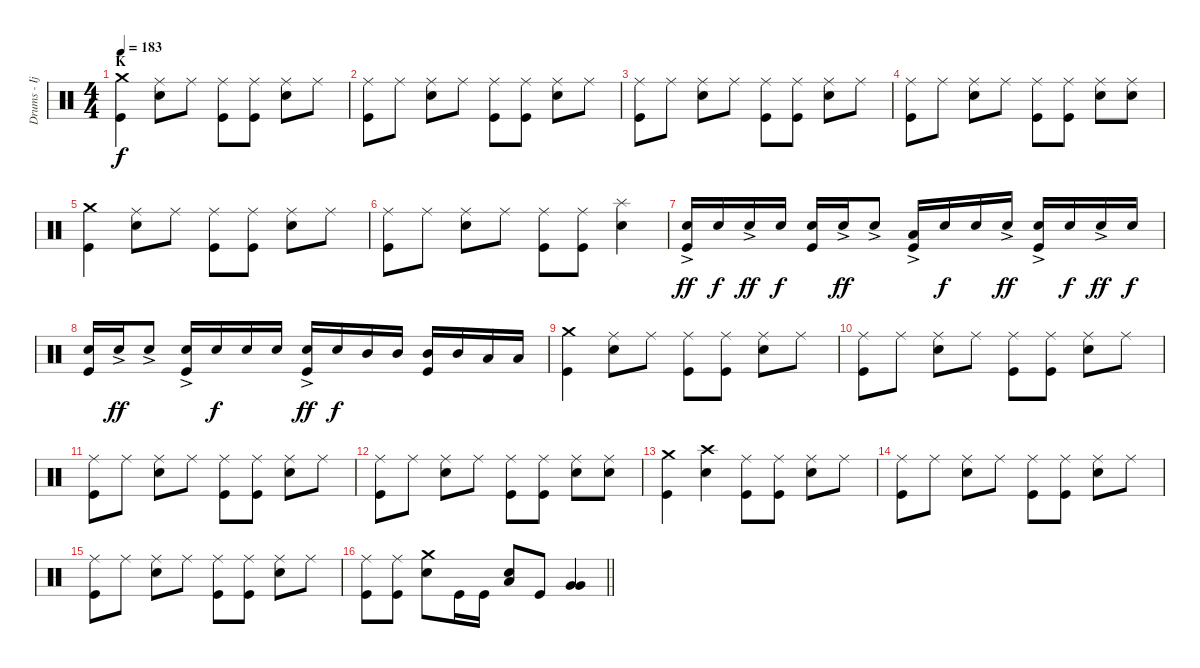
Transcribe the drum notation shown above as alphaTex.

\track ("Drums - Ijichi" "Drums - Ij") {instrument percussion}
\staff {score}
\articulation defaults
\ts (4 4)
\section ("" "K")
\tempo 183
\clef neutral
\ks c
("Crash medium (hit)" "Kick (hit)").4{dy f} ("Ride (middle)" "Electric Snare (hit)").8 "Ride (middle)".8 ("Ride (middle)" "Kick (hit)").8 ("Ride (middle)" "Kick (hit)").8 ("Ride (middle)" "Electric Snare (hit)").8 "Ride (middle)".8 |
("Ride (middle)" "Kick (hit)").8 "Ride (middle)".8 ("Ride (middle)" "Electric Snare (hit)").8 "Ride (middle)".8 ("Ride (middle)" "Kick (hit)").8 ("Ride (middle)" "Kick (hit)").8 ("Ride (middle)" "Electric Snare (hit)").8 "Ride (middle)".8 |
("Ride (middle)" "Kick (hit)").8 "Ride (middle)".8 ("Ride (middle)" "Electric Snare (hit)").8 "Ride (middle)".8 ("Ride (middle)" "Kick (hit)").8 ("Ride (middle)" "Kick (hit)").8 ("Ride (middle)" "Electric Snare (hit)").8 "Ride (middle)".8 |
("Ride (middle)" "Kick (hit)").8 "Ride (middle)".8 ("Ride (middle)" "Electric Snare (hit)").8 "Ride (middle)".8 ("Ride (middle)" "Kick (hit)").8 ("Ride (middle)" "Kick (hit)").8 ("Ride (middle)" "Electric Snare (hit)").8 ("Ride (middle)" "Electric Snare (hit)").8 |
("Crash medium (hit)" "Kick (hit)").4 ("Ride (middle)" "Electric Snare (hit)").8 "Ride (middle)".8 ("Ride (middle)" "Kick (hit)").8 ("Ride (middle)" "Kick (hit)").8 ("Ride (middle)" "Electric Snare (hit)").8 "Ride (middle)".8 |
("Ride (middle)" "Kick (hit)").8 "Ride (middle)".8 ("Ride (middle)" "Electric Snare (hit)").8 "Ride (middle)".8 ("Ride (middle)" "Kick (hit)").8 ("Ride (middle)" "Kick (hit)").8 ("Splash (hit)" "Electric Snare (hit)").4 |
("Electric Snare (hit)"{ac} "Kick (hit)").16{dy ff} "Electric Snare (hit)".16{dy f} "Electric Snare (hit)"{ac}.16{dy ff} "Electric Snare (hit)".16{dy f} ("Electric Snare (hit)" "Kick (hit)").16 "Electric Snare (hit)"{ac}.16{dy ff} "Electric Snare (hit)"{ac}.8 ("Low Tom (hit)"{ac} "Kick (hit)").16 "Electric Snare (hit)".16{dy f} "Electric Snare (hit)".16 "Electric Snare (hit)"{ac}.16{dy ff} ("Electric Snare (hit)"{ac} "Kick (hit)").16 "Electric Snare (hit)".16{dy f} "Electric Snare (hit)"{ac}.16{dy ff} "Electric Snare (hit)".16{dy f} |
("Electric Snare (hit)" "Kick (hit)").16 "Electric Snare (hit)"{ac}.16{dy ff} "Electric Snare (hit)"{ac}.8 ("Electric Snare (hit)"{ac} "Kick (hit)").16 "Electric Snare (hit)".16{dy f} "Electric Snare (hit)".16 "Electric Snare (hit)".16 ("Electric Snare (hit)"{ac} "Kick (hit)").16{dy ff} "Electric Snare (hit)".16{dy f} "Mid Tom (hit)".16 "Mid Tom (hit)".16 ("Mid Tom (hit)" "Kick (hit)").16 "Mid Tom (hit)".16 "Low Tom (hit)".16 "Low Tom (hit)".16 |
("Crash medium (hit)" "Kick (hit)").4 ("Ride (middle)" "Electric Snare (hit)").8 "Ride (middle)".8 ("Ride (middle)" "Kick (hit)").8 ("Ride (middle)" "Kick (hit)").8 ("Ride (middle)" "Electric Snare (hit)").8 "Ride (middle)".8 |
("Ride (middle)" "Kick (hit)").8 "Ride (middle)".8 ("Ride (middle)" "Electric Snare (hit)").8 "Ride (middle)".8 ("Ride (middle)" "Kick (hit)").8 ("Ride (middle)" "Kick (hit)").8 ("Ride (middle)" "Electric Snare (hit)").8 "Ride (middle)".8 |
("Ride (middle)" "Kick (hit)").8 "Ride (middle)".8 ("Ride (middle)" "Electric Snare (hit)").8 "Ride (middle)".8 ("Ride (middle)" "Kick (hit)").8 ("Ride (middle)" "Kick (hit)").8 ("Ride (middle)" "Electric Snare (hit)").8 "Ride (middle)".8 |
("Ride (middle)" "Kick (hit)").8 "Ride (middle)".8 ("Ride (middle)" "Electric Snare (hit)").8 "Ride (middle)".8 ("Ride (middle)" "Kick (hit)").8 ("Ride (middle)" "Kick (hit)").8 ("Ride (middle)" "Electric Snare (hit)").8 ("Ride (middle)" "Electric Snare (hit)").8 |
("Crash medium (hit)" "Kick (hit)").4 ("Crash high (hit)" "Electric Snare (hit)").4 ("Ride (middle)" "Kick (hit)").8 ("Ride (middle)" "Kick (hit)").8 ("Ride (middle)" "Electric Snare (hit)").8 "Ride (middle)".8 |
("Ride (middle)" "Kick (hit)").8 "Ride (middle)".8 ("Ride (middle)" "Electric Snare (hit)").8 "Ride (middle)".8 ("Ride (middle)" "Kick (hit)").8 ("Ride (middle)" "Kick (hit)").8 ("Ride (middle)" "Electric Snare (hit)").8 "Ride (middle)".8 |
("Ride (middle)" "Kick (hit)").8 "Ride (middle)".8 ("Ride (middle)" "Electric Snare (hit)").8 "Ride (middle)".8 ("Ride (middle)" "Kick (hit)").8 ("Ride (middle)" "Kick (hit)").8 ("Ride (middle)" "Electric Snare (hit)").8 "Ride (middle)".8 |
\barLineRight lightlight
("Ride (middle)" "Kick (hit)").8 ("Ride (middle)" "Kick (hit)").8 ("Crash medium (hit)" "Electric Snare (hit)").8 "Kick (hit)".16 "Kick (hit)".16 ("Electric Snare (hit)" "Low Tom (hit)").8 "Kick (hit)".8 ("Very Low Tom (hit)" "Very Low Tom (hit)").4
